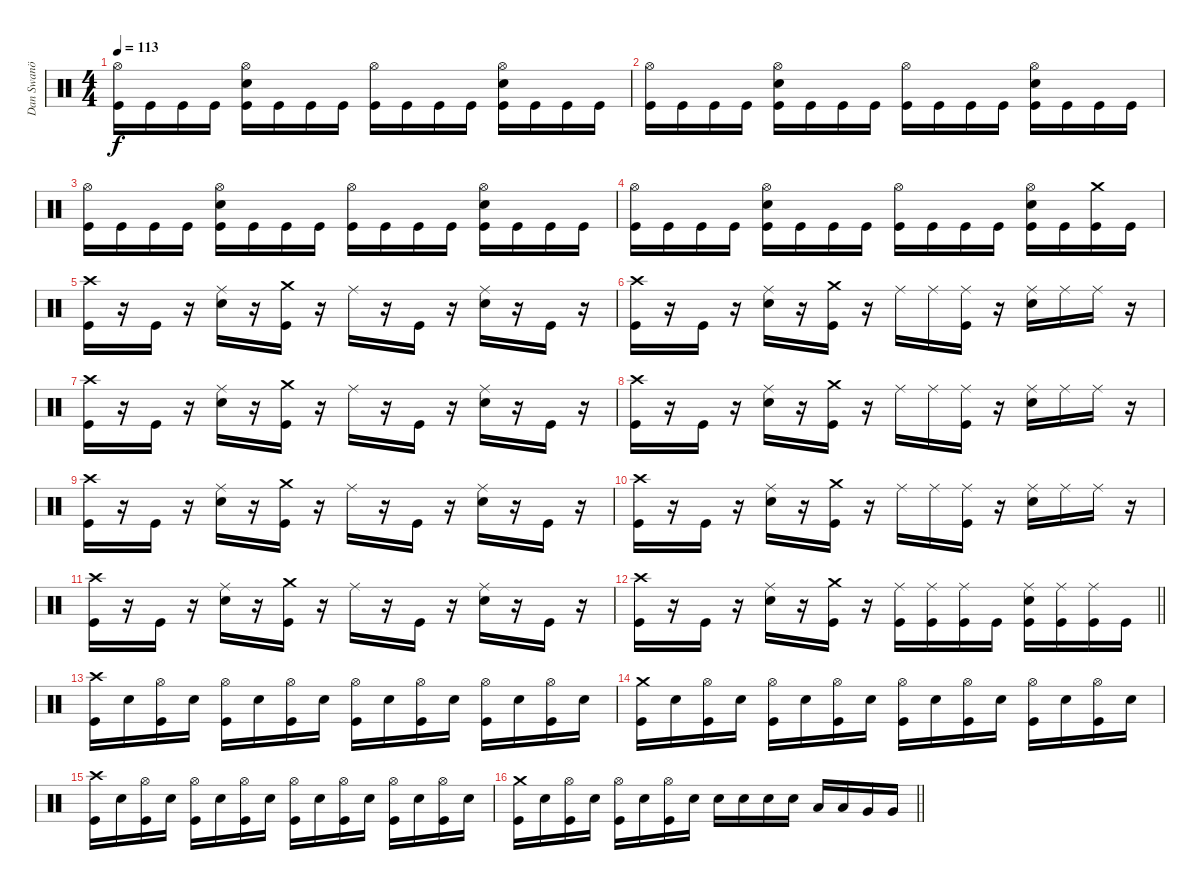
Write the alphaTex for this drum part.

\track ("Dan Swanö" "Dan Swanö") {instrument percussion}
\staff {score}
\articulation defaults
\ts (4 4)
\tempo 113
\clef neutral
\ks c
("Hi-Hat (open)" "Kick (hit)").16{dy f} "Kick (hit)".16 "Kick (hit)".16 "Kick (hit)".16 ("Hi-Hat (open)" "Snare (hit) 2" "Kick (hit)").16 "Kick (hit)".16 "Kick (hit)".16 "Kick (hit)".16 ("Hi-Hat (open)" "Kick (hit)").16 "Kick (hit)".16 "Kick (hit)".16 "Kick (hit)".16 ("Hi-Hat (open)" "Snare (hit) 2" "Kick (hit)").16 "Kick (hit)".16 "Kick (hit)".16 "Kick (hit)".16 |
("Hi-Hat (open)" "Kick (hit)").16 "Kick (hit)".16 "Kick (hit)".16 "Kick (hit)".16 ("Hi-Hat (open)" "Snare (hit) 2" "Kick (hit)").16 "Kick (hit)".16 "Kick (hit)".16 "Kick (hit)".16 ("Hi-Hat (open)" "Kick (hit)").16 "Kick (hit)".16 "Kick (hit)".16 "Kick (hit)".16 ("Hi-Hat (open)" "Snare (hit) 2" "Kick (hit)").16 "Kick (hit)".16 "Kick (hit)".16 "Kick (hit)".16 |
("Hi-Hat (open)" "Kick (hit)").16 "Kick (hit)".16 "Kick (hit)".16 "Kick (hit)".16 ("Hi-Hat (open)" "Snare (hit) 2" "Kick (hit)").16 "Kick (hit)".16 "Kick (hit)".16 "Kick (hit)".16 ("Hi-Hat (open)" "Kick (hit)").16 "Kick (hit)".16 "Kick (hit)".16 "Kick (hit)".16 ("Hi-Hat (open)" "Snare (hit) 2" "Kick (hit)").16 "Kick (hit)".16 "Kick (hit)".16 "Kick (hit)".16 |
("Hi-Hat (open)" "Kick (hit)").16 "Kick (hit)".16 "Kick (hit)".16 "Kick (hit)".16 ("Hi-Hat (open)" "Snare (hit) 2" "Kick (hit)").16 "Kick (hit)".16 "Kick (hit)".16 "Kick (hit)".16 ("Hi-Hat (open)" "Kick (hit)").16 "Kick (hit)".16 "Kick (hit)".16 "Kick (hit)".16 ("Hi-Hat (open)" "Snare (hit) 2" "Kick (hit)").16 "Kick (hit)".16 ("Crash medium (hit)" "Kick (hit)").16 "Kick (hit)".16 |
("Crash high (hit)" "Kick (hit)").16 r.16 "Kick (hit)".16 r.16 ("Ride (middle)" "Snare (hit) 2").16 r.16 ("Crash medium (hit)" "Kick (hit)").16 r.16 "Ride (middle)".16 r.16 "Kick (hit)".16 r.16 ("Ride (middle)" "Snare (hit) 2").16 r.16 "Kick (hit)".16 r.16 |
("Crash high (hit)" "Kick (hit)").16 r.16 "Kick (hit)".16 r.16 ("Ride (middle)" "Snare (hit) 2").16 r.16 ("Crash medium (hit)" "Kick (hit)").16 r.16 "Ride (middle)".16 "Ride (middle)".16 ("Ride (middle)" "Kick (hit)").16 r.16 ("Ride (middle)" "Snare (hit) 2").16 "Ride (middle)".16 "Ride (middle)".16 r.16 |
("Crash high (hit)" "Kick (hit)").16 r.16 "Kick (hit)".16 r.16 ("Ride (middle)" "Snare (hit) 2").16 r.16 ("Crash medium (hit)" "Kick (hit)").16 r.16 "Ride (middle)".16 r.16 "Kick (hit)".16 r.16 ("Ride (middle)" "Snare (hit) 2").16 r.16 "Kick (hit)".16 r.16 |
("Crash high (hit)" "Kick (hit)").16 r.16 "Kick (hit)".16 r.16 ("Ride (middle)" "Snare (hit) 2").16 r.16 ("Crash medium (hit)" "Kick (hit)").16 r.16 "Ride (middle)".16 "Ride (middle)".16 ("Ride (middle)" "Kick (hit)").16 r.16 ("Ride (middle)" "Snare (hit) 2").16 "Ride (middle)".16 "Ride (middle)".16 r.16 |
("Crash high (hit)" "Kick (hit)").16 r.16 "Kick (hit)".16 r.16 ("Ride (middle)" "Snare (hit) 2").16 r.16 ("Crash medium (hit)" "Kick (hit)").16 r.16 "Ride (middle)".16 r.16 "Kick (hit)".16 r.16 ("Ride (middle)" "Snare (hit) 2").16 r.16 "Kick (hit)".16 r.16 |
("Crash high (hit)" "Kick (hit)").16 r.16 "Kick (hit)".16 r.16 ("Ride (middle)" "Snare (hit) 2").16 r.16 ("Crash medium (hit)" "Kick (hit)").16 r.16 "Ride (middle)".16 "Ride (middle)".16 ("Ride (middle)" "Kick (hit)").16 r.16 ("Ride (middle)" "Snare (hit) 2").16 "Ride (middle)".16 "Ride (middle)".16 r.16 |
("Crash high (hit)" "Kick (hit)").16 r.16 "Kick (hit)".16 r.16 ("Ride (middle)" "Snare (hit) 2").16 r.16 ("Crash medium (hit)" "Kick (hit)").16 r.16 "Ride (middle)".16 r.16 "Kick (hit)".16 r.16 ("Ride (middle)" "Snare (hit) 2").16 r.16 "Kick (hit)".16 r.16 |
\barLineRight lightlight
("Crash high (hit)" "Kick (hit)").16 r.16 "Kick (hit)".16 r.16 ("Ride (middle)" "Snare (hit) 2").16 r.16 ("Crash medium (hit)" "Kick (hit)").16 r.16 ("Ride (middle)" "Kick (hit)").16 ("Ride (middle)" "Kick (hit)").16 ("Ride (middle)" "Kick (hit)").16 "Kick (hit)".16 ("Ride (middle)" "Snare (hit) 2" "Kick (hit)").16 ("Ride (middle)" "Kick (hit)").16 ("Ride (middle)" "Kick (hit)").16 "Kick (hit)".16 |
("Crash high (hit)" "Kick (hit)").16 "Snare (hit) 2".16 ("Hi-Hat (open)" "Kick (hit)").16 "Snare (hit) 2".16 ("Hi-Hat (open)" "Kick (hit)").16 "Snare (hit) 2".16 ("Hi-Hat (open)" "Kick (hit)").16 "Snare (hit) 2".16 ("Hi-Hat (open)" "Kick (hit)").16 "Snare (hit) 2".16 ("Hi-Hat (open)" "Kick (hit)").16 "Snare (hit) 2".16 ("Hi-Hat (open)" "Kick (hit)").16 "Snare (hit) 2".16 ("Hi-Hat (open)" "Kick (hit)").16 "Snare (hit) 2".16 |
("Crash medium (hit)" "Kick (hit)").16 "Snare (hit) 2".16 ("Hi-Hat (open)" "Kick (hit)").16 "Snare (hit) 2".16 ("Hi-Hat (open)" "Kick (hit)").16 "Snare (hit) 2".16 ("Hi-Hat (open)" "Kick (hit)").16 "Snare (hit) 2".16 ("Hi-Hat (open)" "Kick (hit)").16 "Snare (hit) 2".16 ("Hi-Hat (open)" "Kick (hit)").16 "Snare (hit) 2".16 ("Hi-Hat (open)" "Kick (hit)").16 "Snare (hit) 2".16 ("Hi-Hat (open)" "Kick (hit)").16 "Snare (hit) 2".16 |
("Crash high (hit)" "Kick (hit)").16 "Snare (hit) 2".16 ("Hi-Hat (open)" "Kick (hit)").16 "Snare (hit) 2".16 ("Hi-Hat (open)" "Kick (hit)").16 "Snare (hit) 2".16 ("Hi-Hat (open)" "Kick (hit)").16 "Snare (hit) 2".16 ("Hi-Hat (open)" "Kick (hit)").16 "Snare (hit) 2".16 ("Hi-Hat (open)" "Kick (hit)").16 "Snare (hit) 2".16 ("Hi-Hat (open)" "Kick (hit)").16 "Snare (hit) 2".16 ("Hi-Hat (open)" "Kick (hit)").16 "Snare (hit) 2".16 |
\barLineRight lightlight
("Crash medium (hit)" "Kick (hit)").16 "Snare (hit) 2".16 ("Hi-Hat (open)" "Kick (hit)").16 "Snare (hit) 2".16 ("Hi-Hat (open)" "Kick (hit)").16 "Snare (hit) 2".16 ("Hi-Hat (open)" "Kick (hit)").16 "Snare (hit) 2".16 "Snare (hit) 2".16 "Snare (hit) 2".16 "Snare (hit) 2".16 "Snare (hit) 2".16 "Low Tom (hit)".16 "Low Tom (hit)".16 "Very Low Tom (hit)".16 "Very Low Tom (hit)".16
